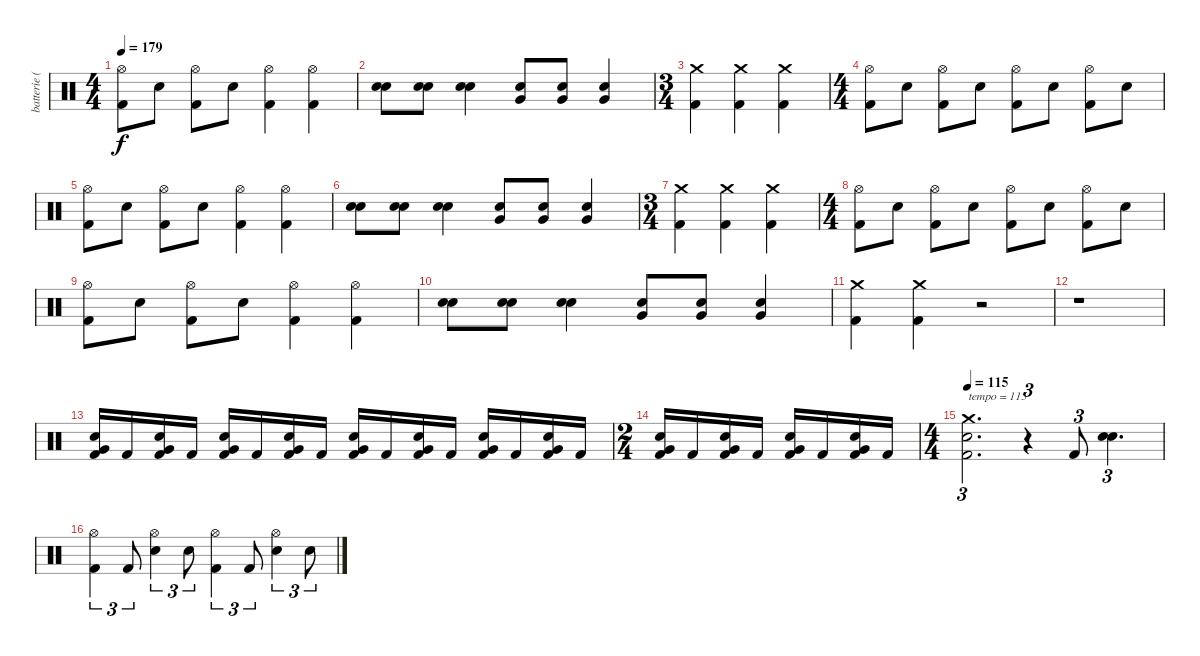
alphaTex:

\track ("batterie ( Carlos ) " "batterie (") {instrument percussion}
\staff {score}
\articulation defaults
\ts (4 4)
\tempo 179
\clef neutral
\ks c
("Hi-Hat (open)" "Kick (hit) 2").8{dy f} "Electric Snare (hit)".8 ("Hi-Hat (open)" "Kick (hit) 2").8 "Electric Snare (hit)".8 ("Hi-Hat (open)" "Kick (hit) 2").4 ("Hi-Hat (open)" "Kick (hit) 2").4 |
("Snare (hit) 2" "Electric Snare (hit)").8 ("Snare (hit) 2" "Electric Snare (hit)").8 ("Snare (hit) 2" "Electric Snare (hit)").4 ("Very Low Tom (hit)" "Electric Snare (hit)").8 ("Very Low Tom (hit)" "Electric Snare (hit)").8 ("Very Low Tom (hit)" "Electric Snare (hit)").4 |
\ts (3 4)
("Crash medium (hit)" "Kick (hit) 2").4 ("Crash medium (hit)" "Kick (hit) 2").4 ("Crash medium (hit)" "Kick (hit) 2").4 |
\ts (4 4)
("Hi-Hat (open)" "Kick (hit) 2").8 "Electric Snare (hit)".8 ("Hi-Hat (open)" "Kick (hit) 2").8 "Electric Snare (hit)".8 ("Hi-Hat (open)" "Kick (hit) 2").8 "Electric Snare (hit)".8 ("Hi-Hat (open)" "Kick (hit) 2").8 "Electric Snare (hit)".8 |
("Hi-Hat (open)" "Kick (hit) 2").8 "Electric Snare (hit)".8 ("Hi-Hat (open)" "Kick (hit) 2").8 "Electric Snare (hit)".8 ("Hi-Hat (open)" "Kick (hit) 2").4 ("Hi-Hat (open)" "Kick (hit) 2").4 |
("Snare (hit) 2" "Electric Snare (hit)").8 ("Snare (hit) 2" "Electric Snare (hit)").8 ("Snare (hit) 2" "Electric Snare (hit)").4 ("Very Low Tom (hit)" "Electric Snare (hit)").8 ("Very Low Tom (hit)" "Electric Snare (hit)").8 ("Very Low Tom (hit)" "Electric Snare (hit)").4 |
\ts (3 4)
("Crash medium (hit)" "Kick (hit) 2").4 ("Crash medium (hit)" "Kick (hit) 2").4 ("Crash medium (hit)" "Kick (hit) 2").4 |
\ts (4 4)
("Hi-Hat (open)" "Kick (hit) 2").8 "Electric Snare (hit)".8 ("Hi-Hat (open)" "Kick (hit) 2").8 "Electric Snare (hit)".8 ("Hi-Hat (open)" "Kick (hit) 2").8 "Electric Snare (hit)".8 ("Hi-Hat (open)" "Kick (hit) 2").8 "Electric Snare (hit)".8 |
("Hi-Hat (open)" "Kick (hit) 2").8 "Electric Snare (hit)".8 ("Hi-Hat (open)" "Kick (hit) 2").8 "Electric Snare (hit)".8 ("Hi-Hat (open)" "Kick (hit) 2").4 ("Hi-Hat (open)" "Kick (hit) 2").4 |
("Snare (hit) 2" "Electric Snare (hit)").8 ("Snare (hit) 2" "Electric Snare (hit)").8 ("Snare (hit) 2" "Electric Snare (hit)").4 ("Very Low Tom (hit)" "Electric Snare (hit)").8 ("Very Low Tom (hit)" "Electric Snare (hit)").8 ("Very Low Tom (hit)" "Electric Snare (hit)").4 |
("Crash medium (hit)" "Kick (hit) 2").4 ("Crash medium (hit)" "Kick (hit) 2").4 r.2 |
r.1 |
("Very Low Tom (hit)" "Electric Snare (hit)" "Kick (hit) 2").16 "Kick (hit) 2".16 ("Very Low Tom (hit)" "Electric Snare (hit)" "Kick (hit) 2").16 "Kick (hit) 2".16 ("Very Low Tom (hit)" "Electric Snare (hit)" "Kick (hit) 2").16 "Kick (hit) 2".16 ("Very Low Tom (hit)" "Electric Snare (hit)" "Kick (hit) 2").16 "Kick (hit) 2".16 ("Very Low Tom (hit)" "Electric Snare (hit)" "Kick (hit) 2").16 "Kick (hit) 2".16 ("Very Low Tom (hit)" "Electric Snare (hit)" "Kick (hit) 2").16 "Kick (hit) 2".16 ("Very Low Tom (hit)" "Electric Snare (hit)" "Kick (hit) 2").16 "Kick (hit) 2".16 ("Very Low Tom (hit)" "Electric Snare (hit)" "Kick (hit) 2").16 "Kick (hit) 2".16 |
\ts (2 4)
("Very Low Tom (hit)" "Electric Snare (hit)" "Kick (hit) 2").16 "Kick (hit) 2".16 ("Very Low Tom (hit)" "Electric Snare (hit)" "Kick (hit) 2").16 "Kick (hit) 2".16 ("Very Low Tom (hit)" "Electric Snare (hit)" "Kick (hit) 2").16 "Kick (hit) 2".16 ("Very Low Tom (hit)" "Electric Snare (hit)" "Kick (hit) 2").16 "Kick (hit) 2".16 |
\ts (4 4)
\tempo 115
("Crash medium (hit)" "Snare (hit) 2" "Kick (hit) 2").2{d tu (3 2) txt "tempo = 115"} r.4{tu (3 2)} "Kick (hit) 2".8{tu (3 2)} ("Snare (hit) 2" "Electric Snare (hit)").4{d tu (3 2)} |
("Hi-Hat (open)" "Kick (hit) 2").4{tu (3 2)} "Kick (hit) 2".8{tu (3 2)} ("Hi-Hat (open)" "Electric Snare (hit)").4{tu (3 2)} "Electric Snare (hit)".8{tu (3 2)} ("Hi-Hat (open)" "Kick (hit) 2").4{tu (3 2)} "Kick (hit) 2".8{tu (3 2)} ("Hi-Hat (open)" "Electric Snare (hit)").4{tu (3 2)} "Electric Snare (hit)".8{tu (3 2)}
